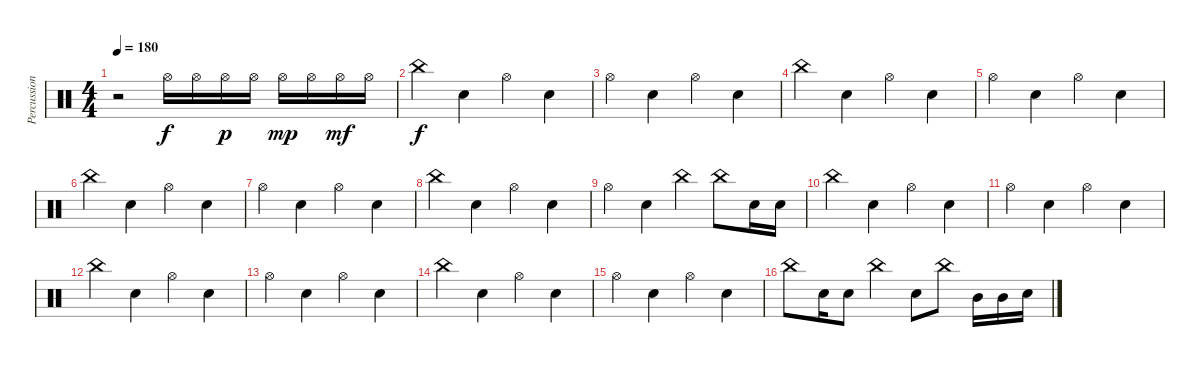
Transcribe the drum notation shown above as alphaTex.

\track ("Percussion" "Percussion") {instrument percussion}
\staff {score}
\articulation defaults
\ts (4 4)
\tempo 180
\clef neutral
\ks c
r.2{dy f} "Hi-Hat (open)"{x}.16 "Hi-Hat (open)"{x}.16 "Hi-Hat (open)".16{dy p} "Hi-Hat (open)".16 "Hi-Hat (open)".16{dy mp} "Hi-Hat (open)".16 "Hi-Hat (open)".16{dy mf} "Hi-Hat (open)".16 |
"China (hit)".4{dy f} "Snare (hit) 2".4 "Hi-Hat (open)".4 "Snare (hit) 2".4 |
"Hi-Hat (open)".4 "Snare (hit) 2".4 "Hi-Hat (open)".4 "Snare (hit) 2".4 |
"China (hit)".4 "Snare (hit) 2".4 "Hi-Hat (open)".4 "Snare (hit) 2".4 |
"Hi-Hat (open)".4 "Snare (hit) 2".4 "Hi-Hat (open)".4 "Snare (hit) 2".4 |
"China (hit)".4 "Snare (hit) 2".4 "Hi-Hat (open)".4 "Snare (hit) 2".4 |
"Hi-Hat (open)".4 "Snare (hit) 2".4 "Hi-Hat (open)".4 "Snare (hit) 2".4 |
"China (hit)".4 "Snare (hit) 2".4 "Hi-Hat (open)".4 "Snare (hit) 2".4 |
"Hi-Hat (open)".4 "Snare (hit) 2".4 "China (hit)".4 "China (hit)".8 "Snare (hit) 2".16 "Snare (hit) 2".16 |
"China (hit)".4 "Snare (hit) 2".4 "Hi-Hat (open)".4 "Snare (hit) 2".4 |
"Hi-Hat (open)".4 "Snare (hit) 2".4 "Hi-Hat (open)".4 "Snare (hit) 2".4 |
"China (hit)".4 "Snare (hit) 2".4 "Hi-Hat (open)".4 "Snare (hit) 2".4 |
"Hi-Hat (open)".4 "Snare (hit) 2".4 "Hi-Hat (open)".4 "Snare (hit) 2".4 |
"China (hit)".4 "Snare (hit) 2".4 "Hi-Hat (open)".4 "Snare (hit) 2".4 |
"Hi-Hat (open)".4 "Snare (hit) 2".4 "Hi-Hat (open)".4 "Snare (hit) 2".4 |
"China (hit)".8 "Snare (hit) 2".16 "Snare (hit) 2".8 "China (hit)".4 "Snare (hit) 2".8 "China (hit)".8 "Mid Tom (hit)".16 "Mid Tom (hit)".16 "Snare (hit) 2".16
